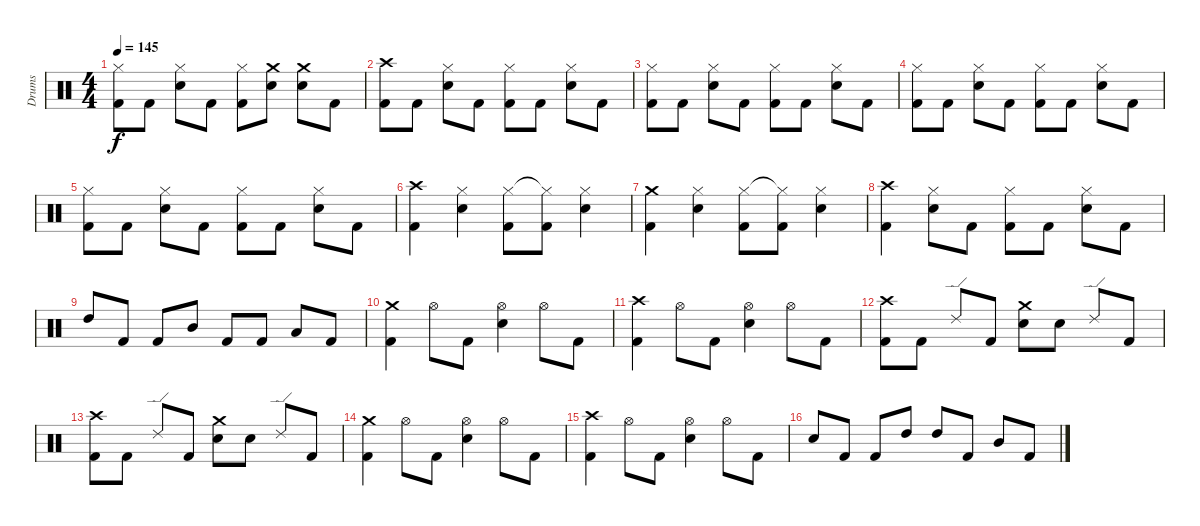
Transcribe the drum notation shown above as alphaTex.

\track ("Drums" "Drums") {instrument percussion}
\staff {score}
\articulation defaults
\ts (4 4)
\tempo 145
\clef neutral
\ks c
("Hi-Hat (closed)" "Kick (hit) 2").8{dy f} "Kick (hit) 2".8 ("Hi-Hat (closed)" "Electric Snare (hit)").8 "Kick (hit) 2".8 ("Hi-Hat (closed)" "Kick (hit) 2").8 ("Crash medium (hit)" "Electric Snare (hit)").8 ("Crash medium (hit)" "Electric Snare (hit)").8 "Kick (hit) 2".8 |
("Crash high (hit)" "Kick (hit) 2").8 "Kick (hit) 2".8 ("Hi-Hat (closed)" "Electric Snare (hit)").8 "Kick (hit) 2".8 ("Hi-Hat (closed)" "Kick (hit) 2").8 "Kick (hit) 2".8 ("Hi-Hat (closed)" "Electric Snare (hit)").8 "Kick (hit) 2".8 |
("Hi-Hat (closed)" "Kick (hit) 2").8 "Kick (hit) 2".8 ("Hi-Hat (closed)" "Electric Snare (hit)").8 "Kick (hit) 2".8 ("Hi-Hat (closed)" "Kick (hit) 2").8 "Kick (hit) 2".8 ("Hi-Hat (closed)" "Electric Snare (hit)").8 "Kick (hit) 2".8 |
("Hi-Hat (closed)" "Kick (hit) 2").8 "Kick (hit) 2".8 ("Hi-Hat (closed)" "Electric Snare (hit)").8 "Kick (hit) 2".8 ("Hi-Hat (closed)" "Kick (hit) 2").8 "Kick (hit) 2".8 ("Hi-Hat (closed)" "Electric Snare (hit)").8 "Kick (hit) 2".8 |
("Hi-Hat (closed)" "Kick (hit) 2").8 "Kick (hit) 2".8 ("Hi-Hat (closed)" "Electric Snare (hit)").8 "Kick (hit) 2".8 ("Hi-Hat (closed)" "Kick (hit) 2").8 "Kick (hit) 2".8 ("Hi-Hat (closed)" "Electric Snare (hit)").8 "Kick (hit) 2".8 |
("Crash high (hit)" "Kick (hit) 2").4 ("Hi-Hat (closed)" "Electric Snare (hit)").4 ("Hi-Hat (closed)" "Kick (hit) 2").8 ("Hi-Hat (closed)"{t} "Kick (hit) 2").8 ("Hi-Hat (closed)" "Electric Snare (hit)").4 |
("Crash medium (hit)" "Kick (hit) 2").4 ("Hi-Hat (closed)" "Electric Snare (hit)").4 ("Hi-Hat (closed)" "Kick (hit) 2").8 ("Hi-Hat (closed)"{t} "Kick (hit) 2").8 ("Hi-Hat (closed)" "Electric Snare (hit)").4 |
("Crash high (hit)" "Kick (hit) 2").4 ("Hi-Hat (closed)" "Electric Snare (hit)").8 "Kick (hit) 2".8 ("Hi-Hat (closed)" "Kick (hit) 2").8 "Kick (hit) 2".8 ("Hi-Hat (closed)" "Electric Snare (hit)").8 "Kick (hit) 2".8 |
"High Tom (hit)".8 "Kick (hit) 2".8 "Kick (hit) 2".8 "Mid Tom (hit)".8 "Kick (hit) 2".8 "Kick (hit) 2".8 "Low Tom (hit)".8 "Kick (hit) 2".8 |
("Crash medium (hit)" "Kick (hit) 2").4 "Hi-Hat (open)".8 "Kick (hit) 2".8 ("Hi-Hat (open)" "Electric Snare (hit)").4 "Hi-Hat (open)".8 "Kick (hit) 2".8 |
("Crash high (hit)" "Kick (hit) 2").4 "Hi-Hat (open)".8 "Kick (hit) 2".8 ("Hi-Hat (open)" "Electric Snare (hit)").4 "Hi-Hat (open)".8 "Kick (hit) 2".8 |
("Crash high (hit)" "Kick (hit) 2").8 "Kick (hit) 2".8 "Ride (edge) 2".8 "Kick (hit) 2".8 ("Crash medium (hit)" "Electric Snare (hit)").8 "Electric Snare (hit)".8 "Ride (edge) 2".8 "Kick (hit) 2".8 |
("Crash high (hit)" "Kick (hit) 2").8 "Kick (hit) 2".8 "Ride (edge) 2".8 "Kick (hit) 2".8 ("Crash medium (hit)" "Electric Snare (hit)").8 "Electric Snare (hit)".8 "Ride (edge) 2".8 "Kick (hit) 2".8 |
("Crash medium (hit)" "Kick (hit) 2").4 "Hi-Hat (open)".8 "Kick (hit) 2".8 ("Hi-Hat (open)" "Electric Snare (hit)").4 "Hi-Hat (open)".8 "Kick (hit) 2".8 |
("Crash high (hit)" "Kick (hit) 2").4 "Hi-Hat (open)".8 "Kick (hit) 2".8 ("Hi-Hat (open)" "Electric Snare (hit)").4 "Hi-Hat (open)".8 "Kick (hit) 2".8 |
"Electric Snare (hit)".8 "Kick (hit) 2".8 "Kick (hit) 2".8 "High Tom (hit)".8 "High Tom (hit)".8 "Kick (hit) 2".8 "Mid Tom (hit)".8 "Kick (hit) 2".8
